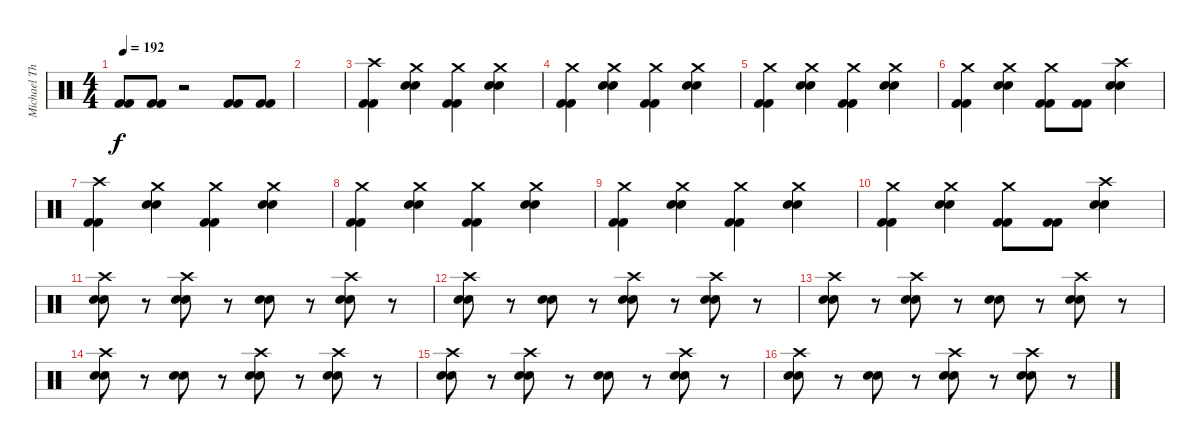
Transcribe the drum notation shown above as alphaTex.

\track ("Michael Thomas" "Michael Th") {instrument percussion}
\staff {score}
\articulation defaults
\ts (4 4)
\tempo 192
\clef neutral
\ks c
("Kick (hit) 2" "Kick (hit) 2").8{dy f} ("Kick (hit) 2" "Kick (hit) 2").8 r.2 ("Kick (hit) 2" "Kick (hit) 2").8 ("Kick (hit) 2" "Kick (hit) 2").8 |
|
("Crash high (hit)" "Kick (hit) 2" "Kick (hit) 2").4 ("Crash medium (hit)" "Snare (hit) 2" "Electric Snare (hit)").4 ("Crash medium (hit)" "Kick (hit) 2" "Kick (hit) 2").4 ("Crash medium (hit)" "Snare (hit) 2" "Electric Snare (hit)").4 |
("Crash medium (hit)" "Kick (hit) 2" "Kick (hit) 2").4 ("Crash medium (hit)" "Snare (hit) 2" "Electric Snare (hit)").4 ("Crash medium (hit)" "Kick (hit) 2" "Kick (hit) 2").4 ("Crash medium (hit)" "Snare (hit) 2" "Electric Snare (hit)").4 |
("Crash medium (hit)" "Kick (hit) 2" "Kick (hit) 2").4 ("Crash medium (hit)" "Snare (hit) 2" "Electric Snare (hit)").4 ("Crash medium (hit)" "Kick (hit) 2" "Kick (hit) 2").4 ("Crash medium (hit)" "Snare (hit) 2" "Electric Snare (hit)").4 |
("Crash medium (hit)" "Kick (hit) 2" "Kick (hit) 2").4 ("Crash medium (hit)" "Snare (hit) 2" "Electric Snare (hit)").4 ("Crash medium (hit)" "Kick (hit) 2" "Kick (hit) 2").8 ("Kick (hit) 2" "Kick (hit) 2").8 ("Crash high (hit)" "Snare (hit) 2" "Electric Snare (hit)").4 |
("Crash high (hit)" "Kick (hit) 2" "Kick (hit) 2").4 ("Crash medium (hit)" "Snare (hit) 2" "Electric Snare (hit)").4 ("Crash medium (hit)" "Kick (hit) 2" "Kick (hit) 2").4 ("Crash medium (hit)" "Snare (hit) 2" "Electric Snare (hit)").4 |
("Crash medium (hit)" "Kick (hit) 2" "Kick (hit) 2").4 ("Crash medium (hit)" "Snare (hit) 2" "Electric Snare (hit)").4 ("Crash medium (hit)" "Kick (hit) 2" "Kick (hit) 2").4 ("Crash medium (hit)" "Snare (hit) 2" "Electric Snare (hit)").4 |
("Crash medium (hit)" "Kick (hit) 2" "Kick (hit) 2").4 ("Crash medium (hit)" "Snare (hit) 2" "Electric Snare (hit)").4 ("Crash medium (hit)" "Kick (hit) 2" "Kick (hit) 2").4 ("Crash medium (hit)" "Snare (hit) 2" "Electric Snare (hit)").4 |
("Crash medium (hit)" "Kick (hit) 2" "Kick (hit) 2").4 ("Crash medium (hit)" "Snare (hit) 2" "Electric Snare (hit)").4 ("Crash medium (hit)" "Kick (hit) 2" "Kick (hit) 2").8 ("Kick (hit) 2" "Kick (hit) 2").8 ("Crash high (hit)" "Snare (hit) 2" "Electric Snare (hit)").4 |
("Crash high (hit)" "Snare (hit) 2" "Electric Snare (hit)").8 r.8 ("Crash high (hit)" "Snare (hit) 2" "Electric Snare (hit)").8 r.8 ("Snare (hit) 2" "Electric Snare (hit)").8 r.8 ("Crash high (hit)" "Snare (hit) 2" "Electric Snare (hit)").8 r.8 |
("Crash high (hit)" "Snare (hit) 2" "Electric Snare (hit)").8 r.8 ("Snare (hit) 2" "Electric Snare (hit)").8 r.8 ("Crash high (hit)" "Snare (hit) 2" "Electric Snare (hit)").8 r.8 ("Crash high (hit)" "Snare (hit) 2" "Electric Snare (hit)").8 r.8 |
("Crash high (hit)" "Snare (hit) 2" "Electric Snare (hit)").8 r.8 ("Crash high (hit)" "Snare (hit) 2" "Electric Snare (hit)").8 r.8 ("Snare (hit) 2" "Electric Snare (hit)").8 r.8 ("Crash high (hit)" "Snare (hit) 2" "Electric Snare (hit)").8 r.8 |
("Crash high (hit)" "Snare (hit) 2" "Electric Snare (hit)").8 r.8 ("Snare (hit) 2" "Electric Snare (hit)").8 r.8 ("Crash high (hit)" "Snare (hit) 2" "Electric Snare (hit)").8 r.8 ("Crash high (hit)" "Snare (hit) 2" "Electric Snare (hit)").8 r.8 |
("Crash high (hit)" "Snare (hit) 2" "Electric Snare (hit)").8 r.8 ("Crash high (hit)" "Snare (hit) 2" "Electric Snare (hit)").8 r.8 ("Snare (hit) 2" "Electric Snare (hit)").8 r.8 ("Crash high (hit)" "Snare (hit) 2" "Electric Snare (hit)").8 r.8 |
("Crash high (hit)" "Snare (hit) 2" "Electric Snare (hit)").8 r.8 ("Snare (hit) 2" "Electric Snare (hit)").8 r.8 ("Crash high (hit)" "Snare (hit) 2" "Electric Snare (hit)").8 r.8 ("Crash high (hit)" "Snare (hit) 2" "Electric Snare (hit)").8 r.8
